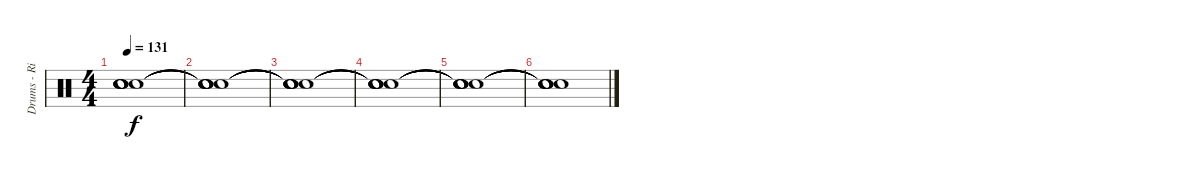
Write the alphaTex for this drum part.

\track ("Drums - Rian" "Drums - Ri") {instrument percussion}
\staff
\articulation defaults
\ts (4 4)
\tempo 131
\clef neutral
\ks c
("Snare (hit)"{t} "Snare (hit)"{t} "Snare (hit)"{t} "Snare (hit)"{t} "Snare (hit)"{t}).1{dy f} |
("Snare (hit)"{t} "Snare (hit)"{t} "Snare (hit)"{t} "Snare (hit)"{t} "Snare (hit)"{t}).1 |
("Snare (hit)"{t} "Snare (hit)"{t} "Snare (hit)"{t} "Snare (hit)"{t} "Snare (hit)"{t}).1 |
("Snare (hit)"{t} "Snare (hit)"{t} "Snare (hit)"{t} "Snare (hit)"{t} "Snare (hit)"{t}).1 |
("Snare (hit)"{t} "Snare (hit)"{t} "Snare (hit)"{t} "Snare (hit)"{t} "Snare (hit)"{t}).1 |
("Snare (hit)"{t} "Snare (hit)"{t} "Snare (hit)"{t} "Snare (hit)"{t} "Snare (hit)"{t}).1
